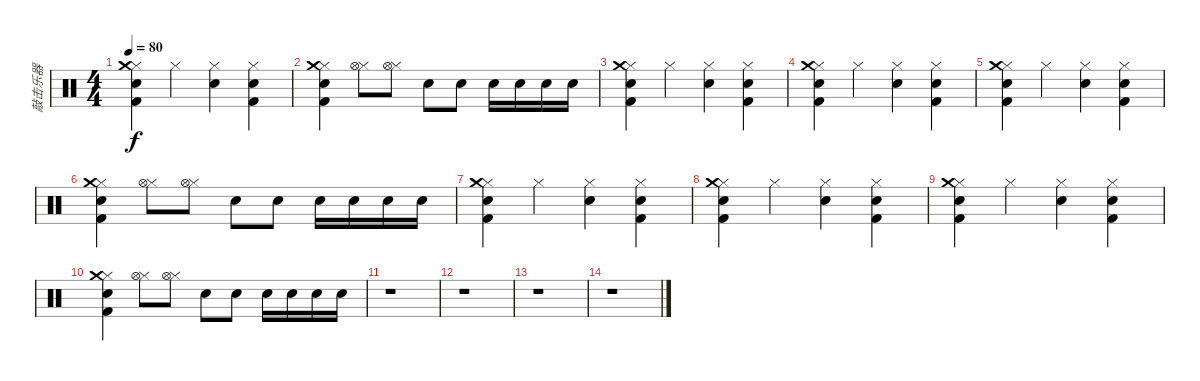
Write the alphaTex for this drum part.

\track ("敲击乐器" "敲击乐器") {instrument percussion}
\staff {score}
\articulation defaults
\ts (4 4)
\tempo 80
\clef neutral
\ks c
("Hi-Hat (closed)" "Snare (hit) 2" "Kick (hit) 2" "Crash medium (hit)").4{dy f} "Hi-Hat (closed)".4 ("Hi-Hat (closed)" "Hand Clap (hit)").4 ("Hi-Hat (closed)" "Snare (hit) 2" "Kick (hit) 2").4 |
("Hi-Hat (closed)" "Snare (hit) 2" "Kick (hit) 2" "Crash medium (hit)").4 ("Hi-Hat (closed)" "Hi-Hat (open)").8 ("Hi-Hat (closed)" "Hi-Hat (open)").8 "Electric Snare (hit)".8 "Electric Snare (hit)".8 "Snare (hit) 2".16 "Snare (hit) 2".16 "Snare (hit) 2".16 "Snare (hit) 2".16 |
("Hi-Hat (closed)" "Snare (hit) 2" "Kick (hit) 2" "Crash medium (hit)").4 "Hi-Hat (closed)".4 ("Hi-Hat (closed)" "Hand Clap (hit)").4 ("Hi-Hat (closed)" "Snare (hit) 2" "Kick (hit) 2").4 |
("Hi-Hat (closed)" "Snare (hit) 2" "Kick (hit) 2" "Crash medium (hit)").4 "Hi-Hat (closed)".4 ("Hi-Hat (closed)" "Hand Clap (hit)").4 ("Hi-Hat (closed)" "Snare (hit) 2" "Kick (hit) 2").4 |
("Hi-Hat (closed)" "Snare (hit) 2" "Kick (hit) 2" "Crash medium (hit)").4 "Hi-Hat (closed)".4 ("Hi-Hat (closed)" "Hand Clap (hit)").4 ("Hi-Hat (closed)" "Snare (hit) 2" "Kick (hit) 2").4 |
("Hi-Hat (closed)" "Snare (hit) 2" "Kick (hit) 2" "Crash medium (hit)").4 ("Hi-Hat (closed)" "Hi-Hat (open)").8 ("Hi-Hat (closed)" "Hi-Hat (open)").8 "Electric Snare (hit)".8 "Electric Snare (hit)".8 "Snare (hit) 2".16 "Snare (hit) 2".16 "Snare (hit) 2".16 "Snare (hit) 2".16 |
("Hi-Hat (closed)" "Snare (hit) 2" "Kick (hit) 2" "Crash medium (hit)").4{volume 10} "Hi-Hat (closed)".4 ("Hi-Hat (closed)" "Hand Clap (hit)").4 ("Hi-Hat (closed)" "Snare (hit) 2" "Kick (hit) 2").4 |
("Hi-Hat (closed)" "Snare (hit) 2" "Kick (hit) 2" "Crash medium (hit)").4 "Hi-Hat (closed)".4 ("Hi-Hat (closed)" "Hand Clap (hit)").4 ("Hi-Hat (closed)" "Snare (hit) 2" "Kick (hit) 2").4 |
("Hi-Hat (closed)" "Snare (hit) 2" "Kick (hit) 2" "Crash medium (hit)").4 "Hi-Hat (closed)".4 ("Hi-Hat (closed)" "Hand Clap (hit)").4 ("Hi-Hat (closed)" "Snare (hit) 2" "Kick (hit) 2").4 |
("Hi-Hat (closed)" "Snare (hit) 2" "Kick (hit) 2" "Crash medium (hit)").4 ("Hi-Hat (closed)" "Hi-Hat (open)").8 ("Hi-Hat (closed)" "Hi-Hat (open)").8 "Electric Snare (hit)".8 "Electric Snare (hit)".8 "Snare (hit) 2".16 "Snare (hit) 2".16 "Snare (hit) 2".16 "Snare (hit) 2".16 |
r.1 |
r.1 |
r.1 |
r.1
